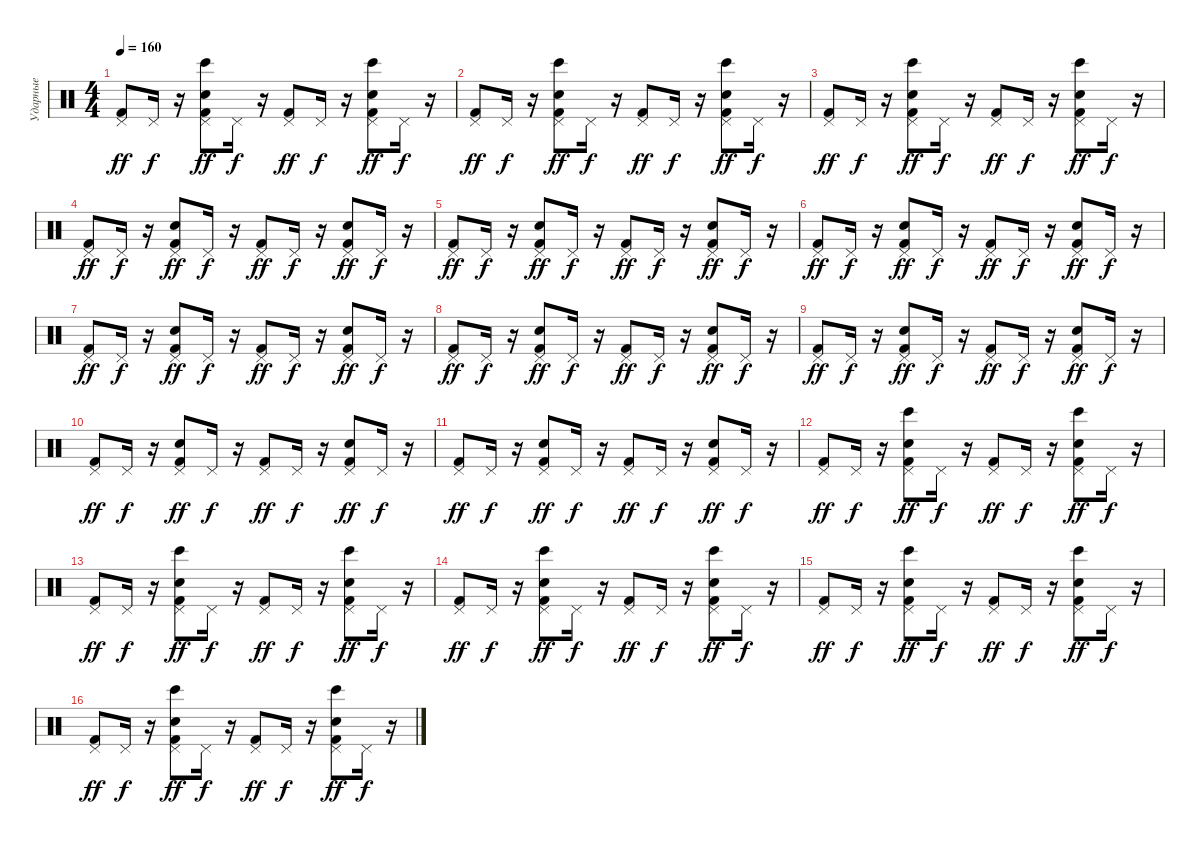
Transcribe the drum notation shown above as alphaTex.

\track ("Ударные" "Ударные") {instrument percussion}
\staff {score}
\articulation defaults
\ts (4 4)
\tempo 160
\clef neutral
\ks c
("Kick (hit) 2" "Pedal Hi-Hat (hit)").8{dy ff} "Pedal Hi-Hat (hit)".16{dy f} r.16 ("Snare (hit) 2" "Kick (hit) 2" "Pedal Hi-Hat (hit)" "Bongo High (hit)").8{dy ff} "Pedal Hi-Hat (hit)".16{dy f} r.16 ("Kick (hit) 2" "Pedal Hi-Hat (hit)").8{dy ff} "Pedal Hi-Hat (hit)".16{dy f} r.16 ("Kick (hit) 2" "Snare (hit) 2" "Pedal Hi-Hat (hit)" "Bongo High (hit)").8{dy ff} "Pedal Hi-Hat (hit)".16{dy f} r.16 |
("Kick (hit) 2" "Pedal Hi-Hat (hit)").8{dy ff} "Pedal Hi-Hat (hit)".16{dy f} r.16 ("Snare (hit) 2" "Kick (hit) 2" "Pedal Hi-Hat (hit)" "Bongo High (hit)").8{dy ff} "Pedal Hi-Hat (hit)".16{dy f} r.16 ("Kick (hit) 2" "Pedal Hi-Hat (hit)").8{dy ff} "Pedal Hi-Hat (hit)".16{dy f} r.16 ("Kick (hit) 2" "Snare (hit) 2" "Pedal Hi-Hat (hit)" "Bongo High (hit)").8{dy ff} "Pedal Hi-Hat (hit)".16{dy f} r.16 |
("Kick (hit) 2" "Pedal Hi-Hat (hit)").8{dy ff} "Pedal Hi-Hat (hit)".16{dy f} r.16 ("Kick (hit) 2" "Snare (hit) 2" "Pedal Hi-Hat (hit)" "Bongo High (hit)").8{dy ff} "Pedal Hi-Hat (hit)".16{dy f} r.16 ("Kick (hit) 2" "Pedal Hi-Hat (hit)").8{dy ff} "Pedal Hi-Hat (hit)".16{dy f} r.16 ("Kick (hit) 2" "Snare (hit) 2" "Pedal Hi-Hat (hit)" "Bongo High (hit)").8{dy ff} "Pedal Hi-Hat (hit)".16{dy f} r.16 |
("Kick (hit) 2" "Pedal Hi-Hat (hit)").8{dy ff} "Pedal Hi-Hat (hit)".16{dy f} r.16 ("Snare (hit) 2" "Kick (hit) 2" "Pedal Hi-Hat (hit)").8{dy ff} "Pedal Hi-Hat (hit)".16{dy f} r.16 ("Kick (hit) 2" "Pedal Hi-Hat (hit)").8{dy ff} "Pedal Hi-Hat (hit)".16{dy f} r.16 ("Kick (hit) 2" "Snare (hit) 2" "Pedal Hi-Hat (hit)").8{dy ff} "Pedal Hi-Hat (hit)".16{dy f} r.16 |
("Kick (hit) 2" "Pedal Hi-Hat (hit)").8{dy ff} "Pedal Hi-Hat (hit)".16{dy f} r.16 ("Kick (hit) 2" "Snare (hit) 2" "Pedal Hi-Hat (hit)").8{dy ff} "Pedal Hi-Hat (hit)".16{dy f} r.16 ("Kick (hit) 2" "Pedal Hi-Hat (hit)").8{dy ff} "Pedal Hi-Hat (hit)".16{dy f} r.16 ("Kick (hit) 2" "Snare (hit) 2" "Pedal Hi-Hat (hit)").8{dy ff} "Pedal Hi-Hat (hit)".16{dy f} r.16 |
("Kick (hit) 2" "Pedal Hi-Hat (hit)").8{dy ff} "Pedal Hi-Hat (hit)".16{dy f} r.16 ("Kick (hit) 2" "Snare (hit) 2" "Pedal Hi-Hat (hit)").8{dy ff} "Pedal Hi-Hat (hit)".16{dy f} r.16 ("Kick (hit) 2" "Pedal Hi-Hat (hit)").8{dy ff} "Pedal Hi-Hat (hit)".16{dy f} r.16 ("Snare (hit) 2" "Kick (hit) 2" "Pedal Hi-Hat (hit)").8{dy ff} "Pedal Hi-Hat (hit)".16{dy f} r.16 |
("Kick (hit) 2" "Pedal Hi-Hat (hit)").8{dy ff} "Pedal Hi-Hat (hit)".16{dy f} r.16 ("Kick (hit) 2" "Snare (hit) 2" "Pedal Hi-Hat (hit)").8{dy ff} "Pedal Hi-Hat (hit)".16{dy f} r.16 ("Kick (hit) 2" "Pedal Hi-Hat (hit)").8{dy ff} "Pedal Hi-Hat (hit)".16{dy f} r.16 ("Kick (hit) 2" "Snare (hit) 2" "Pedal Hi-Hat (hit)").8{dy ff} "Pedal Hi-Hat (hit)".16{dy f} r.16 |
("Kick (hit) 2" "Pedal Hi-Hat (hit)").8{dy ff} "Pedal Hi-Hat (hit)".16{dy f} r.16 ("Kick (hit) 2" "Snare (hit) 2" "Pedal Hi-Hat (hit)").8{dy ff} "Pedal Hi-Hat (hit)".16{dy f} r.16 ("Kick (hit) 2" "Pedal Hi-Hat (hit)").8{dy ff} "Pedal Hi-Hat (hit)".16{dy f} r.16 ("Snare (hit) 2" "Kick (hit) 2" "Pedal Hi-Hat (hit)").8{dy ff} "Pedal Hi-Hat (hit)".16{dy f} r.16 |
("Kick (hit) 2" "Pedal Hi-Hat (hit)").8{dy ff} "Pedal Hi-Hat (hit)".16{dy f} r.16 ("Snare (hit) 2" "Kick (hit) 2" "Pedal Hi-Hat (hit)").8{dy ff} "Pedal Hi-Hat (hit)".16{dy f} r.16 ("Kick (hit) 2" "Pedal Hi-Hat (hit)").8{dy ff} "Pedal Hi-Hat (hit)".16{dy f} r.16 ("Kick (hit) 2" "Snare (hit) 2" "Pedal Hi-Hat (hit)").8{dy ff} "Pedal Hi-Hat (hit)".16{dy f} r.16 |
("Kick (hit) 2" "Pedal Hi-Hat (hit)").8{dy ff} "Pedal Hi-Hat (hit)".16{dy f} r.16 ("Snare (hit) 2" "Kick (hit) 2" "Pedal Hi-Hat (hit)").8{dy ff} "Pedal Hi-Hat (hit)".16{dy f} r.16 ("Kick (hit) 2" "Pedal Hi-Hat (hit)").8{dy ff} "Pedal Hi-Hat (hit)".16{dy f} r.16 ("Kick (hit) 2" "Snare (hit) 2" "Pedal Hi-Hat (hit)").8{dy ff} "Pedal Hi-Hat (hit)".16{dy f} r.16 |
("Kick (hit) 2" "Pedal Hi-Hat (hit)").8{dy ff} "Pedal Hi-Hat (hit)".16{dy f} r.16 ("Kick (hit) 2" "Snare (hit) 2" "Pedal Hi-Hat (hit)").8{dy ff} "Pedal Hi-Hat (hit)".16{dy f} r.16 ("Kick (hit) 2" "Pedal Hi-Hat (hit)").8{dy ff} "Pedal Hi-Hat (hit)".16{dy f} r.16 ("Kick (hit) 2" "Snare (hit) 2" "Pedal Hi-Hat (hit)").8{dy ff} "Pedal Hi-Hat (hit)".16{dy f} r.16 |
("Kick (hit) 2" "Pedal Hi-Hat (hit)").8{dy ff} "Pedal Hi-Hat (hit)".16{dy f} r.16 ("Snare (hit) 2" "Kick (hit) 2" "Pedal Hi-Hat (hit)" "Bongo High (hit)").8{dy ff} "Pedal Hi-Hat (hit)".16{dy f} r.16 ("Kick (hit) 2" "Pedal Hi-Hat (hit)").8{dy ff} "Pedal Hi-Hat (hit)".16{dy f} r.16 ("Kick (hit) 2" "Snare (hit) 2" "Pedal Hi-Hat (hit)" "Bongo High (hit)").8{dy ff} "Pedal Hi-Hat (hit)".16{dy f} r.16 |
("Kick (hit) 2" "Pedal Hi-Hat (hit)").8{dy ff} "Pedal Hi-Hat (hit)".16{dy f} r.16 ("Kick (hit) 2" "Snare (hit) 2" "Pedal Hi-Hat (hit)" "Bongo High (hit)").8{dy ff} "Pedal Hi-Hat (hit)".16{dy f} r.16 ("Kick (hit) 2" "Pedal Hi-Hat (hit)").8{dy ff} "Pedal Hi-Hat (hit)".16{dy f} r.16 ("Kick (hit) 2" "Snare (hit) 2" "Pedal Hi-Hat (hit)" "Bongo High (hit)").8{dy ff} "Pedal Hi-Hat (hit)".16{dy f} r.16 |
("Kick (hit) 2" "Pedal Hi-Hat (hit)").8{dy ff} "Pedal Hi-Hat (hit)".16{dy f} r.16 ("Kick (hit) 2" "Snare (hit) 2" "Pedal Hi-Hat (hit)" "Bongo High (hit)").8{dy ff} "Pedal Hi-Hat (hit)".16{dy f} r.16 ("Kick (hit) 2" "Pedal Hi-Hat (hit)").8{dy ff} "Pedal Hi-Hat (hit)".16{dy f} r.16 ("Snare (hit) 2" "Kick (hit) 2" "Pedal Hi-Hat (hit)" "Bongo High (hit)").8{dy ff} "Pedal Hi-Hat (hit)".16{dy f} r.16 |
("Kick (hit) 2" "Pedal Hi-Hat (hit)").8{dy ff} "Pedal Hi-Hat (hit)".16{dy f} r.16 ("Kick (hit) 2" "Snare (hit) 2" "Pedal Hi-Hat (hit)" "Bongo High (hit)").8{dy ff} "Pedal Hi-Hat (hit)".16{dy f} r.16 ("Kick (hit) 2" "Pedal Hi-Hat (hit)").8{dy ff} "Pedal Hi-Hat (hit)".16{dy f} r.16 ("Kick (hit) 2" "Snare (hit) 2" "Pedal Hi-Hat (hit)" "Bongo High (hit)").8{dy ff} "Pedal Hi-Hat (hit)".16{dy f} r.16 |
("Kick (hit) 2" "Pedal Hi-Hat (hit)").8{dy ff} "Pedal Hi-Hat (hit)".16{dy f} r.16 ("Kick (hit) 2" "Snare (hit) 2" "Pedal Hi-Hat (hit)" "Bongo High (hit)").8{dy ff} "Pedal Hi-Hat (hit)".16{dy f} r.16 ("Kick (hit) 2" "Pedal Hi-Hat (hit)").8{dy ff} "Pedal Hi-Hat (hit)".16{dy f} r.16 ("Snare (hit) 2" "Kick (hit) 2" "Pedal Hi-Hat (hit)" "Bongo High (hit)").8{dy ff} "Pedal Hi-Hat (hit)".16{dy f} r.16
